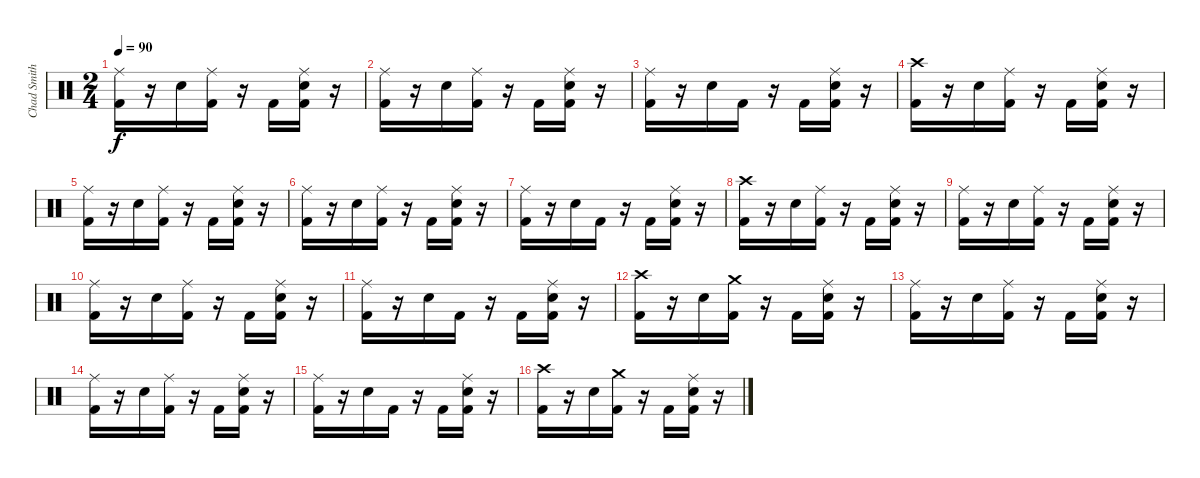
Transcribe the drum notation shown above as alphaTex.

\track ("Chad Smith" "Chad Smith") {instrument percussion}
\staff {score}
\articulation defaults
\ts (2 4)
\tempo 90
\clef neutral
\ks c
("Ride (middle)" "Kick (hit) 2").16{dy f} r.16 "Electric Snare (hit)".16 ("Ride (middle)" "Kick (hit) 2").16 r.16 "Kick (hit) 2".16 ("Ride (middle)" "Electric Snare (hit)" "Kick (hit) 2").16 r.16 |
("Ride (middle)" "Kick (hit) 2").16 r.16 "Electric Snare (hit)".16 ("Ride (middle)" "Kick (hit) 2").16 r.16 "Kick (hit) 2".16 ("Ride (middle)" "Electric Snare (hit)" "Kick (hit) 2").16 r.16 |
("Ride (middle)" "Kick (hit) 2").16 r.16 "Electric Snare (hit)".16 "Kick (hit) 2".16 r.16 "Kick (hit) 2".16 ("Ride (middle)" "Electric Snare (hit)" "Kick (hit) 2").16 r.16 |
("Crash high (hit)" "Kick (hit) 2").16 r.16 "Electric Snare (hit)".16 ("Ride (middle)" "Kick (hit) 2").16 r.16 "Kick (hit) 2".16 ("Ride (middle)" "Electric Snare (hit)" "Kick (hit) 2").16 r.16 |
("Ride (middle)" "Kick (hit) 2").16 r.16 "Electric Snare (hit)".16 ("Ride (middle)" "Kick (hit) 2").16 r.16 "Kick (hit) 2".16 ("Ride (middle)" "Electric Snare (hit)" "Kick (hit) 2").16 r.16 |
("Ride (middle)" "Kick (hit) 2").16 r.16 "Electric Snare (hit)".16 ("Ride (middle)" "Kick (hit) 2").16 r.16 "Kick (hit) 2".16 ("Ride (middle)" "Electric Snare (hit)" "Kick (hit) 2").16 r.16 |
("Ride (middle)" "Kick (hit) 2").16 r.16 "Electric Snare (hit)".16 "Kick (hit) 2".16 r.16 "Kick (hit) 2".16 ("Ride (middle)" "Electric Snare (hit)" "Kick (hit) 2").16 r.16 |
("Crash high (hit)" "Kick (hit) 2").16 r.16 "Electric Snare (hit)".16 ("Ride (middle)" "Kick (hit) 2").16 r.16 "Kick (hit) 2".16 ("Ride (middle)" "Electric Snare (hit)" "Kick (hit) 2").16 r.16 |
("Ride (middle)" "Kick (hit) 2").16 r.16 "Electric Snare (hit)".16 ("Ride (middle)" "Kick (hit) 2").16 r.16 "Kick (hit) 2".16 ("Ride (middle)" "Electric Snare (hit)" "Kick (hit) 2").16 r.16 |
("Ride (middle)" "Kick (hit) 2").16 r.16 "Electric Snare (hit)".16 ("Ride (middle)" "Kick (hit) 2").16 r.16 "Kick (hit) 2".16 ("Ride (middle)" "Electric Snare (hit)" "Kick (hit) 2").16 r.16 |
("Ride (middle)" "Kick (hit) 2").16 r.16 "Electric Snare (hit)".16 "Kick (hit) 2".16 r.16 "Kick (hit) 2".16 ("Ride (middle)" "Electric Snare (hit)" "Kick (hit) 2").16 r.16 |
("Crash high (hit)" "Kick (hit) 2").16 r.16 "Electric Snare (hit)".16 ("Crash medium (hit)" "Kick (hit) 2").16 r.16 "Kick (hit) 2".16 ("Ride (middle)" "Electric Snare (hit)" "Kick (hit) 2").16 r.16 |
("Ride (middle)" "Kick (hit) 2").16 r.16 "Electric Snare (hit)".16 ("Ride (middle)" "Kick (hit) 2").16 r.16 "Kick (hit) 2".16 ("Ride (middle)" "Electric Snare (hit)" "Kick (hit) 2").16 r.16 |
("Ride (middle)" "Kick (hit) 2").16 r.16 "Electric Snare (hit)".16 ("Ride (middle)" "Kick (hit) 2").16 r.16 "Kick (hit) 2".16 ("Ride (middle)" "Electric Snare (hit)" "Kick (hit) 2").16 r.16 |
("Ride (middle)" "Kick (hit) 2").16 r.16 "Electric Snare (hit)".16 "Kick (hit) 2".16 r.16 "Kick (hit) 2".16 ("Ride (middle)" "Electric Snare (hit)" "Kick (hit) 2").16 r.16 |
("Crash high (hit)" "Kick (hit) 2").16 r.16 "Electric Snare (hit)".16 ("Crash medium (hit)" "Kick (hit) 2").16 r.16 "Kick (hit) 2".16 ("Ride (middle)" "Electric Snare (hit)" "Kick (hit) 2").16 r.16
